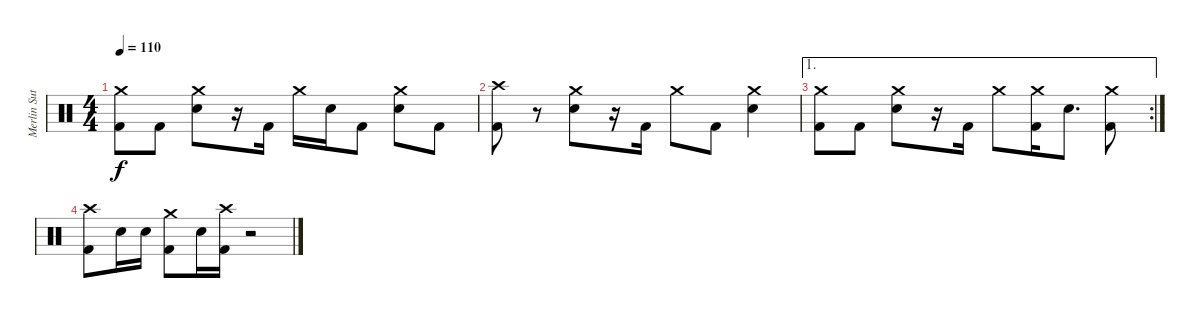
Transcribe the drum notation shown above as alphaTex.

\track ("Merlin Sutter" "Merlin Sut") {instrument percussion}
\staff {score}
\articulation defaults
\ts (4 4)
\tempo 110
\clef neutral
\ks c
("Crash medium (hit)" "Kick (hit) 2").8{dy f} "Kick (hit) 2".8 ("Crash medium (hit)" "Snare (hit) 2").8 r.16 "Kick (hit) 2".16 "Crash medium (hit)".16 "Snare (hit) 2".16 "Kick (hit) 2".8 ("Crash medium (hit)" "Snare (hit) 2").8 "Kick (hit) 2".8 |
("Crash high (hit)" "Kick (hit) 2").8 r.8 ("Crash medium (hit)" "Snare (hit) 2").8 r.16 "Kick (hit) 2".16 "Crash medium (hit)".8 "Kick (hit) 2".8 ("Crash medium (hit)" "Snare (hit) 2").4 |
\ae 1
\rc 2
("Crash medium (hit)" "Kick (hit) 2").8 "Kick (hit) 2".8 ("Crash medium (hit)" "Snare (hit) 2").8 r.16 "Kick (hit) 2".16 "Crash medium (hit)".8 ("Crash medium (hit)" "Kick (hit) 2").16 "Snare (hit) 2".8{d} ("Crash medium (hit)" "Kick (hit) 2").8 |
("Crash high (hit)" "Kick (hit) 2").8 "Snare (hit) 2".16 "Snare (hit) 2".16 ("Crash medium (hit)" "Kick (hit) 2").8 "Snare (hit) 2".16 ("Crash high (hit)" "Kick (hit) 2").16 r.2
